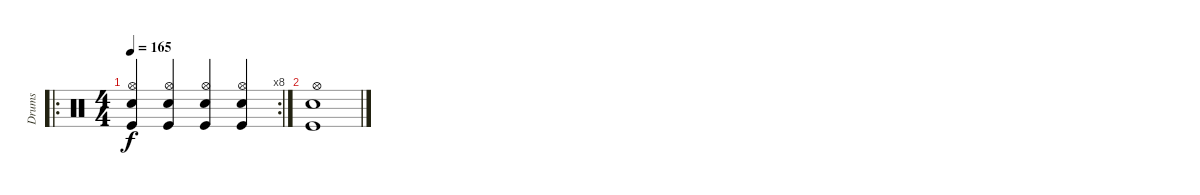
\track ("Drums" "Drums") {instrument percussion}
\staff {score}
\articulation defaults
\ro
\rc 8
\ts (4 4)
\tempo 165
\clef neutral
\ks c
("Kick (hit)" "Hi-Hat (open)" "Snare (hit) 2").4{dy f} ("Kick (hit)" "Hi-Hat (open)" "Snare (hit) 2").4 ("Kick (hit)" "Hi-Hat (open)" "Snare (hit) 2").4 ("Kick (hit)" "Hi-Hat (open)" "Snare (hit) 2").4 |
("Kick (hit)" "Hi-Hat (open)" "Snare (hit) 2").1
